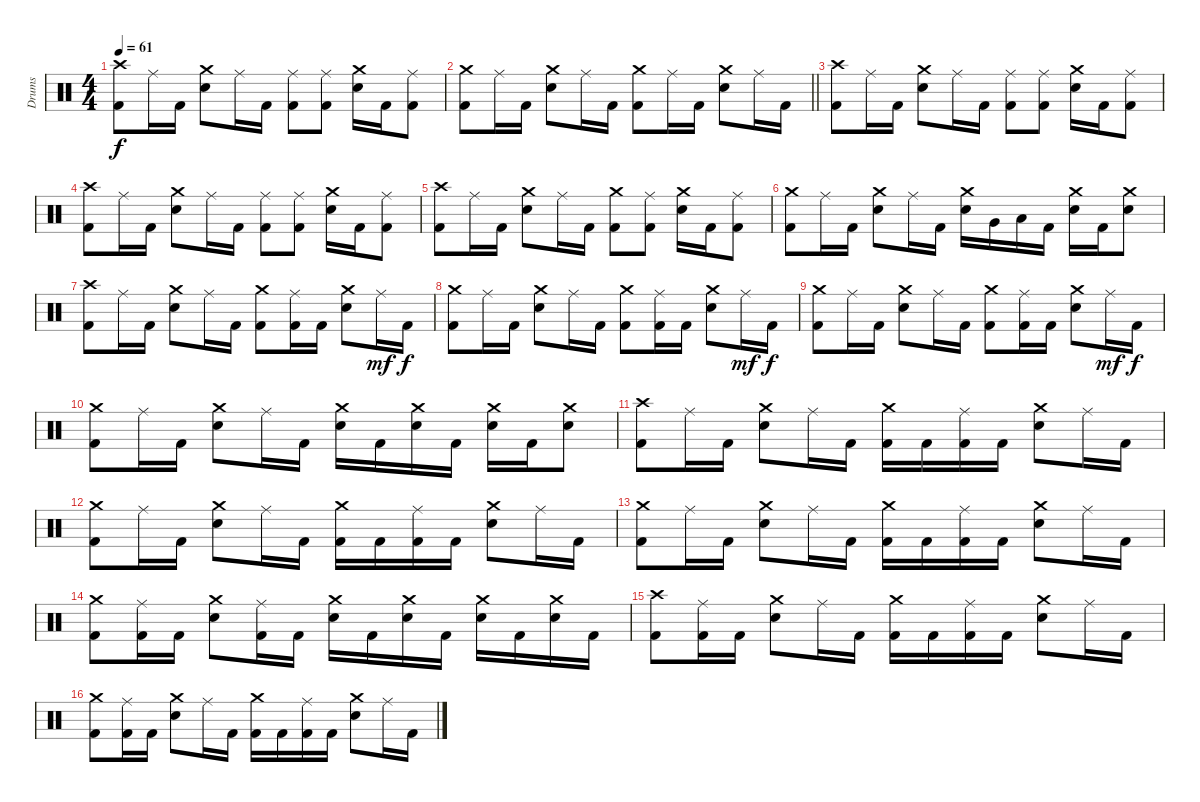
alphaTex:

\track ("Drums" "Drums") {instrument percussion}
\staff {score}
\articulation defaults
\ts (4 4)
\tempo 61
\clef neutral
\ks c
("Crash high (hit)" "Kick (hit) 2").8{dy f} "Ride (middle)".16 "Kick (hit) 2".16 ("Crash medium (hit)" "Electric Snare (hit)").8 "Ride (middle)".16 "Kick (hit) 2".16 ("Ride (middle)" "Kick (hit) 2").8 ("Ride (middle)" "Kick (hit) 2").8 ("Crash medium (hit)" "Electric Snare (hit)").16 "Kick (hit) 2".16 ("Ride (middle)" "Kick (hit) 2").8 |
\barLineRight lightlight
("Crash medium (hit)" "Kick (hit) 2").8 "Ride (middle)".16 "Kick (hit) 2".16 ("Crash medium (hit)" "Electric Snare (hit)").8 "Ride (middle)".16 "Kick (hit) 2".16 ("Crash medium (hit)" "Kick (hit) 2").8 "Ride (middle)".16 "Kick (hit) 2".16 ("Crash medium (hit)" "Electric Snare (hit)").8 "Ride (middle)".16 "Kick (hit) 2".16 |
\section ("" "")
("Crash high (hit)" "Kick (hit) 2").8 "Ride (middle)".16 "Kick (hit) 2".16 ("Crash medium (hit)" "Electric Snare (hit)").8 "Ride (middle)".16 "Kick (hit) 2".16 ("Ride (middle)" "Kick (hit) 2").8 ("Ride (middle)" "Kick (hit) 2").8 ("Crash medium (hit)" "Electric Snare (hit)").16 "Kick (hit) 2".16 ("Ride (middle)" "Kick (hit) 2").8 |
("Crash high (hit)" "Kick (hit) 2").8 "Ride (middle)".16 "Kick (hit) 2".16 ("Crash medium (hit)" "Electric Snare (hit)").8 "Ride (middle)".16 "Kick (hit) 2".16 ("Ride (middle)" "Kick (hit) 2").8 ("Ride (middle)" "Kick (hit) 2").8 ("Crash medium (hit)" "Electric Snare (hit)").16 "Kick (hit) 2".16 ("Ride (middle)" "Kick (hit) 2").8 |
("Crash high (hit)" "Kick (hit) 2").8 "Ride (middle)".16 "Kick (hit) 2".16 ("Crash medium (hit)" "Electric Snare (hit)").8 "Ride (middle)".16 "Kick (hit) 2".16 ("Crash medium (hit)" "Kick (hit) 2").8 ("Ride (middle)" "Kick (hit) 2").8 ("Crash medium (hit)" "Electric Snare (hit)").16 "Kick (hit) 2".16 ("Ride (middle)" "Kick (hit) 2").8 |
("Crash medium (hit)" "Kick (hit) 2").8 "Ride (middle)".16 "Kick (hit) 2".16 ("Crash medium (hit)" "Electric Snare (hit)").8 "Ride (middle)".16 "Kick (hit) 2".16 ("Crash medium (hit)" "Electric Snare (hit)").16 "Very Low Tom (hit)".16 "Low Floor Tom (hit)".16 "Kick (hit) 2".16 ("Crash medium (hit)" "Electric Snare (hit)").16 "Kick (hit) 2".16 ("Crash medium (hit)" "Electric Snare (hit)").8 |
("Crash high (hit)" "Kick (hit) 2").8 "Ride (middle)".16 "Kick (hit) 2".16 ("Crash medium (hit)" "Electric Snare (hit)").8 "Ride (middle)".16 "Kick (hit) 2".16 ("Crash medium (hit)" "Kick (hit) 2").8 ("Ride (middle)" "Kick (hit) 2").16 "Kick (hit) 2".16 ("Crash medium (hit)" "Electric Snare (hit)").8 "Ride (middle)".16{dy mf} "Kick (hit) 2".16{dy f} |
("Crash medium (hit)" "Kick (hit) 2").8 "Ride (middle)".16 "Kick (hit) 2".16 ("Crash medium (hit)" "Electric Snare (hit)").8 "Ride (middle)".16 "Kick (hit) 2".16 ("Crash medium (hit)" "Kick (hit) 2").8 ("Ride (middle)" "Kick (hit) 2").16 "Kick (hit) 2".16 ("Crash medium (hit)" "Electric Snare (hit)").8 "Ride (middle)".16{dy mf} "Kick (hit) 2".16{dy f} |
("Crash medium (hit)" "Kick (hit) 2").8 "Ride (middle)".16 "Kick (hit) 2".16 ("Crash medium (hit)" "Electric Snare (hit)").8 "Ride (middle)".16 "Kick (hit) 2".16 ("Crash medium (hit)" "Kick (hit) 2").8 ("Ride (middle)" "Kick (hit) 2").16 "Kick (hit) 2".16 ("Crash medium (hit)" "Electric Snare (hit)").8 "Ride (middle)".16{dy mf} "Kick (hit) 2".16{dy f} |
("Crash medium (hit)" "Kick (hit) 2").8 "Ride (middle)".16 "Kick (hit) 2".16 ("Crash medium (hit)" "Electric Snare (hit)").8 "Ride (middle)".16 "Kick (hit) 2".16 ("Crash medium (hit)" "Electric Snare (hit)").16 "Kick (hit) 2".16 ("Crash medium (hit)" "Electric Snare (hit)").16 "Kick (hit) 2".16 ("Crash medium (hit)" "Electric Snare (hit)").16 "Kick (hit) 2".16 ("Crash medium (hit)" "Electric Snare (hit)").8 |
("Crash high (hit)" "Kick (hit) 2").8 "Ride (middle)".16 "Kick (hit) 2".16 ("Crash medium (hit)" "Electric Snare (hit)").8 "Ride (middle)".16 "Kick (hit) 2".16 ("Crash medium (hit)" "Kick (hit) 2").16 "Kick (hit) 2".16 ("Ride (middle)" "Kick (hit) 2").16 "Kick (hit) 2".16 ("Crash medium (hit)" "Electric Snare (hit)").8 "Ride (middle)".16 "Kick (hit) 2".16 |
("Crash medium (hit)" "Kick (hit) 2").8 "Ride (middle)".16 "Kick (hit) 2".16 ("Crash medium (hit)" "Electric Snare (hit)").8 "Ride (middle)".16 "Kick (hit) 2".16 ("Crash medium (hit)" "Kick (hit) 2").16 "Kick (hit) 2".16 ("Ride (middle)" "Kick (hit) 2").16 "Kick (hit) 2".16 ("Crash medium (hit)" "Electric Snare (hit)").8 "Ride (middle)".16 "Kick (hit) 2".16 |
("Crash medium (hit)" "Kick (hit) 2").8 "Ride (middle)".16 "Kick (hit) 2".16 ("Crash medium (hit)" "Electric Snare (hit)").8 "Ride (middle)".16 "Kick (hit) 2".16 ("Crash medium (hit)" "Kick (hit) 2").16 "Kick (hit) 2".16 ("Ride (middle)" "Kick (hit) 2").16 "Kick (hit) 2".16 ("Crash medium (hit)" "Electric Snare (hit)").8 "Ride (middle)".16 "Kick (hit) 2".16 |
("Crash medium (hit)" "Kick (hit) 2").8 ("Ride (middle)" "Kick (hit) 2").16 "Kick (hit) 2".16 ("Crash medium (hit)" "Electric Snare (hit)").8 ("Ride (middle)" "Kick (hit) 2").16 "Kick (hit) 2".16 ("Crash medium (hit)" "Electric Snare (hit)").16 "Kick (hit) 2".16 ("Crash medium (hit)" "Electric Snare (hit)").16 "Kick (hit) 2".16 ("Crash medium (hit)" "Electric Snare (hit)").16 "Kick (hit) 2".16 ("Crash medium (hit)" "Electric Snare (hit)").16 "Kick (hit) 2".16 |
("Crash high (hit)" "Kick (hit) 2").8 ("Ride (middle)" "Kick (hit) 2").16 "Kick (hit) 2".16 ("Crash medium (hit)" "Electric Snare (hit)").8 "Ride (middle)".16 "Kick (hit) 2".16 ("Crash medium (hit)" "Kick (hit) 2").16 "Kick (hit) 2".16 ("Ride (middle)" "Kick (hit) 2").16 "Kick (hit) 2".16 ("Crash medium (hit)" "Electric Snare (hit)").8 "Ride (middle)".16 "Kick (hit) 2".16 |
("Crash medium (hit)" "Kick (hit) 2").8 ("Ride (middle)" "Kick (hit) 2").16 "Kick (hit) 2".16 ("Crash medium (hit)" "Electric Snare (hit)").8 "Ride (middle)".16 "Kick (hit) 2".16 ("Crash medium (hit)" "Kick (hit) 2").16 "Kick (hit) 2".16 ("Ride (middle)" "Kick (hit) 2").16 "Kick (hit) 2".16 ("Crash medium (hit)" "Electric Snare (hit)").8 "Ride (middle)".16 "Kick (hit) 2".16
